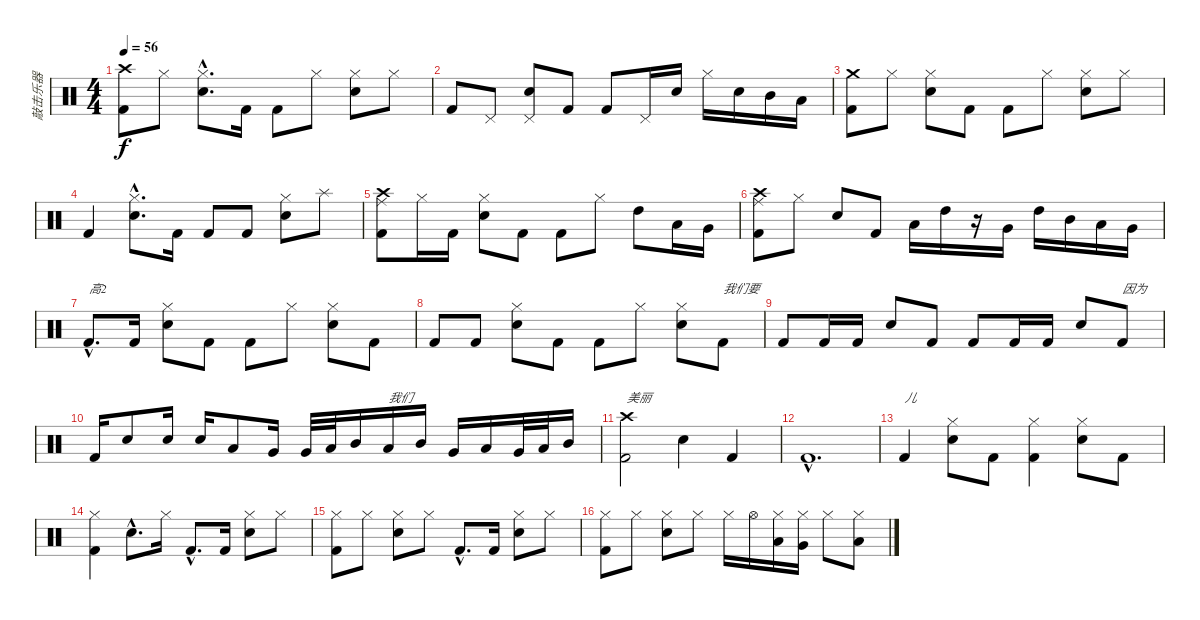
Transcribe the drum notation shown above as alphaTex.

\track ("敲击乐器" "敲击乐器") {instrument percussion}
\staff {score}
\articulation defaults
\ts (4 4)
\tempo 56
\clef neutral
\ks c
("Crash high (hit)" "Kick (hit) 2").8{dy f} "Hi-Hat (closed)".8 ("Hi-Hat (closed)"{hac} "Electric Snare (hit)"{hac}).8{d} "Kick (hit) 2".16 "Kick (hit) 2".8 "Hi-Hat (closed)".8 ("Hi-Hat (closed)" "Electric Snare (hit)").8 "Hi-Hat (closed)".8 |
"Kick (hit) 2".8 "Pedal Hi-Hat (hit)".8 ("Pedal Hi-Hat (hit)" "Electric Snare (hit)").8 "Kick (hit) 2".8 "Kick (hit) 2".8 "Pedal Hi-Hat (hit)".16 "Electric Snare (hit)".16 "Hi-Hat (closed)".16 "Electric Snare (hit)".16 "Mid Tom (hit)".16 "Low Tom (hit)".16 |
("Crash medium (hit)" "Kick (hit) 2").8 "Hi-Hat (closed)".8 ("Hi-Hat (closed)" "Electric Snare (hit)").8 "Kick (hit) 2".8 "Kick (hit) 2".8 "Hi-Hat (closed)".8 ("Hi-Hat (closed)" "Electric Snare (hit)").8 "Hi-Hat (closed)".8 |
"Kick (hit) 2".4 ("Hi-Hat (closed)"{hac} "Electric Snare (hit)").8{d} "Kick (hit) 2".16 "Kick (hit) 2".8 "Kick (hit) 2".8 ("Hi-Hat (closed)" "Electric Snare (hit)").8 "Splash (hit)".8{volume 5} |
("Crash high (hit)" "Ride (middle)" "Kick (hit) 2").8{volume 16} "Hi-Hat (closed)".16{volume 16} "Kick (hit) 2".16 ("Hi-Hat (closed)" "Electric Snare (hit)").8 "Kick (hit) 2".8 "Kick (hit) 2".8 "Hi-Hat (closed)".8 "High Tom (hit)".8 "Low Tom (hit)".16 "Very Low Tom (hit)".16 |
("Crash high (hit)" "Ride (middle)" "Kick (hit) 2").8 "Hi-Hat (closed)".8 "Electric Snare (hit)".8 "Kick (hit) 2".8 "Low Floor Tom (hit)".16 "High Tom (hit)".16 r.16 "Very Low Tom (hit)".16 "High Tom (hit)".16 "Mid Tom (hit)".16 "Low Tom (hit)".16 "Very Low Tom (hit)".16 |
"Kick (hit) 2"{hac}.8{d txt "高2"} "Kick (hit) 2".16 ("Hi-Hat (closed)" "Electric Snare (hit)").8 "Kick (hit) 2".8 "Kick (hit) 2".8 "Hi-Hat (closed)".8 ("Hi-Hat (closed)" "Electric Snare (hit)").8 "Kick (hit) 2".8 |
"Kick (hit) 2".8 "Kick (hit) 2".8 ("Hi-Hat (closed)" "Electric Snare (hit)").8 "Kick (hit) 2".8 "Kick (hit) 2".8 "Hi-Hat (closed)".8 ("Hi-Hat (closed)" "Electric Snare (hit)").8 "Kick (hit) 2".8{txt "我们要"} |
"Kick (hit) 2".8 "Kick (hit) 2".16 "Kick (hit) 2".16 "Electric Snare (hit)".8 "Kick (hit) 2".8 "Kick (hit) 2".8 "Kick (hit) 2".16 "Kick (hit) 2".16 "Electric Snare (hit)".8 "Kick (hit) 2".8{txt "因为"} |
"Kick (hit) 2".16 "Electric Snare (hit)".8 "Electric Snare (hit)".16 "Electric Snare (hit)".16 "Low Tom (hit)".8 "Very Low Tom (hit)".16 "Very Low Tom (hit)".32 "Low Tom (hit)".32 "Mid Tom (hit)".16 "Low Tom (hit)".16{txt "我们"} "Mid Tom (hit)".16 "Very Low Tom (hit)".16 "Low Tom (hit)".16 "Very Low Tom (hit)".32 "Low Tom (hit)".32 "Mid Tom (hit)".16 |
("Crash high (hit)" "Kick (hit) 2").2{txt "美丽"} "Electric Snare (hit)".4 "Kick (hit) 2".4 |
"Kick (hit) 2"{hac}.1{d} |
"Kick (hit) 2".4{txt "儿"} ("Hi-Hat (closed)" "Electric Snare (hit)").8 "Kick (hit) 2".8 ("Hi-Hat (closed)" "Kick (hit) 2").4 ("Hi-Hat (closed)" "Electric Snare (hit)").8 "Kick (hit) 2".8 |
("Hi-Hat (closed)" "Kick (hit) 2").4 "Electric Snare (hit)"{hac}.8{d} "Hi-Hat (closed)".16 "Kick (hit) 2"{hac}.8{d} "Kick (hit) 2".16 ("Hi-Hat (closed)" "Electric Snare (hit)").8 "Hi-Hat (closed)".8 |
("Hi-Hat (closed)" "Kick (hit) 2").8 "Hi-Hat (closed)".8 ("Hi-Hat (closed)" "Electric Snare (hit)").8 "Hi-Hat (closed)".8 "Kick (hit) 2"{hac}.8{d} "Kick (hit) 2".16 ("Hi-Hat (closed)" "Electric Snare (hit)").8 "Hi-Hat (closed)".8 |
("Hi-Hat (closed)" "Kick (hit) 2").8 "Hi-Hat (closed)".8 ("Hi-Hat (closed)" "Electric Snare (hit)").8 "Hi-Hat (closed)".8 "Hi-Hat (closed)".16 "Hi-Hat (open)".16 ("Hi-Hat (closed)" "Low Tom (hit)").16 ("Hi-Hat (closed)" "Very Low Tom (hit)").16 "Hi-Hat (closed)".8 ("Hi-Hat (closed)" "Low Tom (hit)").8
